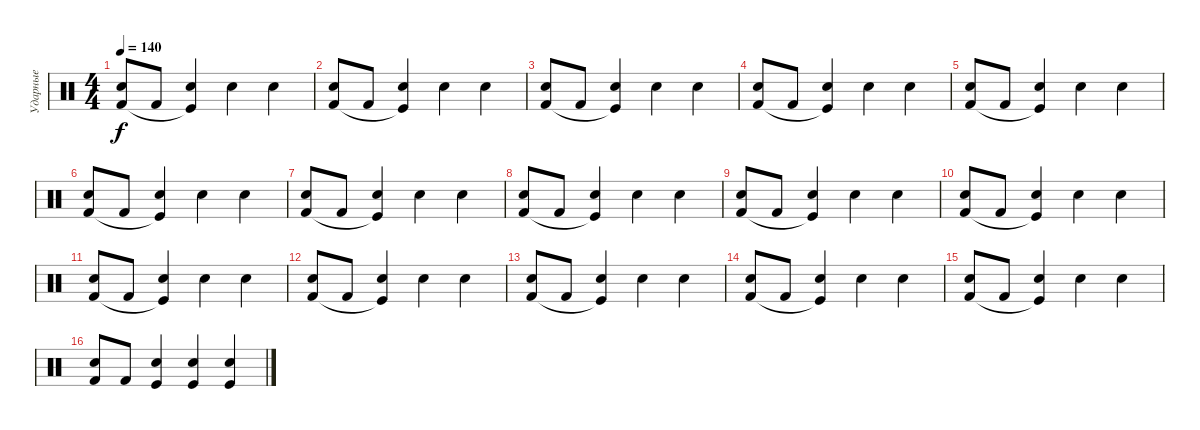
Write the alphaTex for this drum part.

\track ("Ударные" "Ударные") {instrument percussion}
\staff {score}
\articulation defaults
\ts (4 4)
\tempo 140
\clef neutral
\ks c
("Electric Snare (hit)" "Kick (hit) 2").8{dy f} "Kick (hit) 2".8 ("Electric Snare (hit)" "Kick (hit)"{t}).4 "Electric Snare (hit)".4 "Electric Snare (hit)".4 |
("Electric Snare (hit)" "Kick (hit) 2").8 "Kick (hit) 2".8 ("Electric Snare (hit)" "Kick (hit)"{t}).4 "Electric Snare (hit)".4 "Electric Snare (hit)".4 |
("Electric Snare (hit)" "Kick (hit) 2").8 "Kick (hit) 2".8 ("Electric Snare (hit)" "Kick (hit)"{t}).4 "Electric Snare (hit)".4 "Electric Snare (hit)".4 |
("Electric Snare (hit)" "Kick (hit) 2").8 "Kick (hit) 2".8 ("Electric Snare (hit)" "Kick (hit)"{t}).4 "Electric Snare (hit)".4 "Electric Snare (hit)".4 |
("Electric Snare (hit)" "Kick (hit) 2").8 "Kick (hit) 2".8 ("Electric Snare (hit)" "Kick (hit)"{t}).4 "Electric Snare (hit)".4 "Electric Snare (hit)".4 |
("Electric Snare (hit)" "Kick (hit) 2").8 "Kick (hit) 2".8 ("Electric Snare (hit)" "Kick (hit)"{t}).4 "Electric Snare (hit)".4 "Electric Snare (hit)".4 |
("Electric Snare (hit)" "Kick (hit) 2").8 "Kick (hit) 2".8 ("Electric Snare (hit)" "Kick (hit)"{t}).4 "Electric Snare (hit)".4 "Electric Snare (hit)".4 |
("Electric Snare (hit)" "Kick (hit) 2").8 "Kick (hit) 2".8 ("Electric Snare (hit)" "Kick (hit)"{t}).4 "Electric Snare (hit)".4 "Electric Snare (hit)".4 |
("Electric Snare (hit)" "Kick (hit) 2").8 "Kick (hit) 2".8 ("Electric Snare (hit)" "Kick (hit)"{t}).4 "Electric Snare (hit)".4 "Electric Snare (hit)".4 |
("Electric Snare (hit)" "Kick (hit) 2").8 "Kick (hit) 2".8 ("Electric Snare (hit)" "Kick (hit)"{t}).4 "Electric Snare (hit)".4 "Electric Snare (hit)".4 |
("Electric Snare (hit)" "Kick (hit) 2").8 "Kick (hit) 2".8 ("Electric Snare (hit)" "Kick (hit)"{t}).4 "Electric Snare (hit)".4 "Electric Snare (hit)".4 |
("Electric Snare (hit)" "Kick (hit) 2").8 "Kick (hit) 2".8 ("Electric Snare (hit)" "Kick (hit)"{t}).4 "Electric Snare (hit)".4 "Electric Snare (hit)".4 |
("Electric Snare (hit)" "Kick (hit) 2").8 "Kick (hit) 2".8 ("Electric Snare (hit)" "Kick (hit)"{t}).4 "Electric Snare (hit)".4 "Electric Snare (hit)".4 |
("Electric Snare (hit)" "Kick (hit) 2").8 "Kick (hit) 2".8 ("Electric Snare (hit)" "Kick (hit)"{t}).4 "Electric Snare (hit)".4 "Electric Snare (hit)".4 |
("Electric Snare (hit)" "Kick (hit) 2").8 "Kick (hit) 2".8 ("Electric Snare (hit)" "Kick (hit)"{t}).4 "Electric Snare (hit)".4 "Electric Snare (hit)".4 |
("Electric Snare (hit)" "Kick (hit) 2").8 "Kick (hit) 2".8 ("Electric Snare (hit)" "Kick (hit)").4 ("Electric Snare (hit)" "Kick (hit)").4 ("Electric Snare (hit)" "Kick (hit)").4
